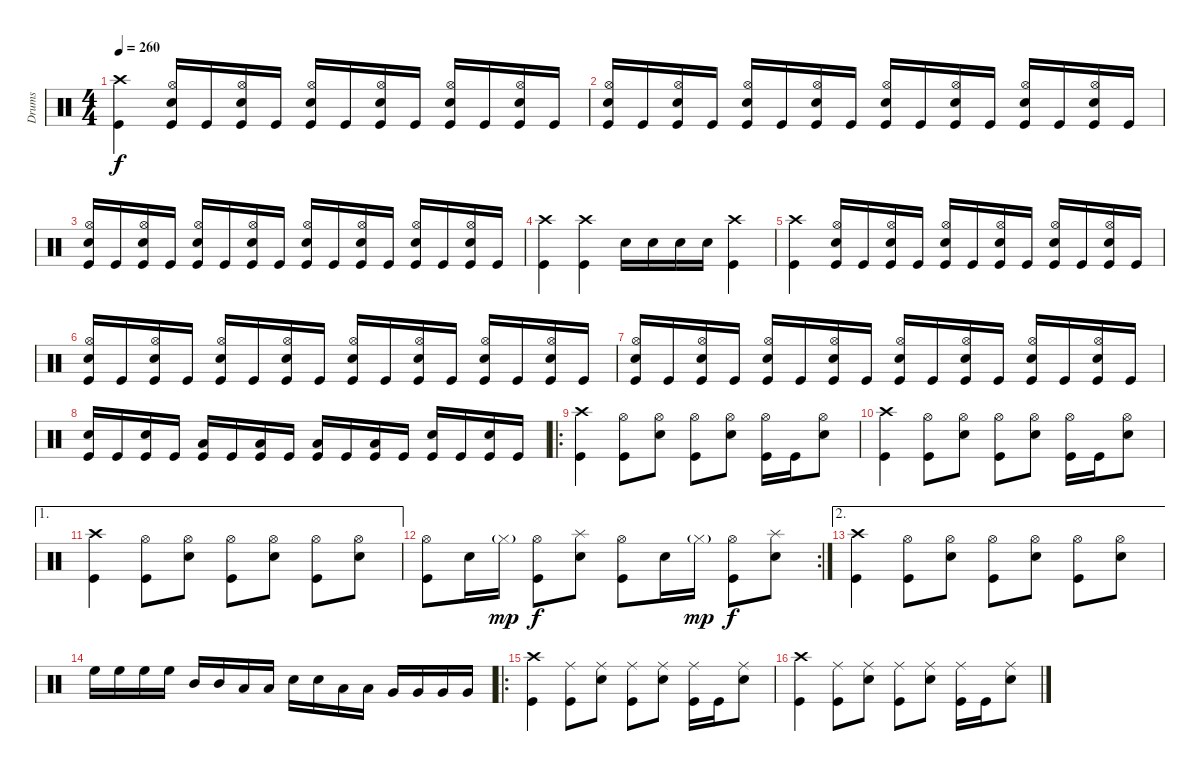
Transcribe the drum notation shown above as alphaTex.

\track ("Drums" "Drums") {instrument percussion}
\staff {score}
\articulation defaults
\ts (4 4)
\tempo 260
\clef neutral
\ks c
("Crash high (hit)" "Kick (hit)").4{dy f} ("Hi-Hat (open)" "Electric Snare (hit)" "Kick (hit)").16 "Kick (hit)".16 ("Hi-Hat (open)" "Electric Snare (hit)" "Kick (hit)").16 "Kick (hit)".16 ("Hi-Hat (open)" "Electric Snare (hit)" "Kick (hit)").16 "Kick (hit)".16 ("Hi-Hat (open)" "Electric Snare (hit)" "Kick (hit)").16 "Kick (hit)".16 ("Hi-Hat (open)" "Electric Snare (hit)" "Kick (hit)").16 "Kick (hit)".16 ("Hi-Hat (open)" "Electric Snare (hit)" "Kick (hit)").16 "Kick (hit)".16 |
("Hi-Hat (open)" "Electric Snare (hit)" "Kick (hit)").16 "Kick (hit)".16 ("Hi-Hat (open)" "Electric Snare (hit)" "Kick (hit)").16 "Kick (hit)".16 ("Hi-Hat (open)" "Electric Snare (hit)" "Kick (hit)").16 "Kick (hit)".16 ("Hi-Hat (open)" "Electric Snare (hit)" "Kick (hit)").16 "Kick (hit)".16 ("Hi-Hat (open)" "Electric Snare (hit)" "Kick (hit)").16 "Kick (hit)".16 ("Hi-Hat (open)" "Electric Snare (hit)" "Kick (hit)").16 "Kick (hit)".16 ("Hi-Hat (open)" "Electric Snare (hit)" "Kick (hit)").16 "Kick (hit)".16 ("Hi-Hat (open)" "Electric Snare (hit)" "Kick (hit)").16 "Kick (hit)".16 |
("Hi-Hat (open)" "Electric Snare (hit)" "Kick (hit)").16 "Kick (hit)".16 ("Hi-Hat (open)" "Electric Snare (hit)" "Kick (hit)").16 "Kick (hit)".16 ("Hi-Hat (open)" "Electric Snare (hit)" "Kick (hit)").16 "Kick (hit)".16 ("Hi-Hat (open)" "Electric Snare (hit)" "Kick (hit)").16 "Kick (hit)".16 ("Hi-Hat (open)" "Electric Snare (hit)" "Kick (hit)").16 "Kick (hit)".16 ("Hi-Hat (open)" "Electric Snare (hit)" "Kick (hit)").16 "Kick (hit)".16 ("Hi-Hat (open)" "Electric Snare (hit)" "Kick (hit)").16 "Kick (hit)".16 ("Hi-Hat (open)" "Electric Snare (hit)" "Kick (hit)").16 "Kick (hit)".16 |
("Crash high (hit)" "Kick (hit)").4 ("Crash high (hit)" "Kick (hit)").4 "Electric Snare (hit)".16 "Electric Snare (hit)".16 "Electric Snare (hit)".16 "Electric Snare (hit)".16 ("Crash high (hit)" "Kick (hit)").4 |
("Crash high (hit)" "Kick (hit)").4 ("Hi-Hat (open)" "Electric Snare (hit)" "Kick (hit)").16 "Kick (hit)".16 ("Hi-Hat (open)" "Electric Snare (hit)" "Kick (hit)").16 "Kick (hit)".16 ("Hi-Hat (open)" "Electric Snare (hit)" "Kick (hit)").16 "Kick (hit)".16 ("Hi-Hat (open)" "Electric Snare (hit)" "Kick (hit)").16 "Kick (hit)".16 ("Hi-Hat (open)" "Electric Snare (hit)" "Kick (hit)").16 "Kick (hit)".16 ("Hi-Hat (open)" "Electric Snare (hit)" "Kick (hit)").16 "Kick (hit)".16 |
("Hi-Hat (open)" "Electric Snare (hit)" "Kick (hit)").16 "Kick (hit)".16 ("Hi-Hat (open)" "Electric Snare (hit)" "Kick (hit)").16 "Kick (hit)".16 ("Hi-Hat (open)" "Electric Snare (hit)" "Kick (hit)").16 "Kick (hit)".16 ("Hi-Hat (open)" "Electric Snare (hit)" "Kick (hit)").16 "Kick (hit)".16 ("Hi-Hat (open)" "Electric Snare (hit)" "Kick (hit)").16 "Kick (hit)".16 ("Hi-Hat (open)" "Electric Snare (hit)" "Kick (hit)").16 "Kick (hit)".16 ("Hi-Hat (open)" "Electric Snare (hit)" "Kick (hit)").16 "Kick (hit)".16 ("Hi-Hat (open)" "Electric Snare (hit)" "Kick (hit)").16 "Kick (hit)".16 |
("Hi-Hat (open)" "Electric Snare (hit)" "Kick (hit)").16 "Kick (hit)".16 ("Hi-Hat (open)" "Electric Snare (hit)" "Kick (hit)").16 "Kick (hit)".16 ("Hi-Hat (open)" "Electric Snare (hit)" "Kick (hit)").16 "Kick (hit)".16 ("Hi-Hat (open)" "Electric Snare (hit)" "Kick (hit)").16 "Kick (hit)".16 ("Hi-Hat (open)" "Electric Snare (hit)" "Kick (hit)").16 "Kick (hit)".16 ("Hi-Hat (open)" "Electric Snare (hit)" "Kick (hit)").16 "Kick (hit)".16 ("Hi-Hat (open)" "Electric Snare (hit)" "Kick (hit)").16 "Kick (hit)".16 ("Hi-Hat (open)" "Electric Snare (hit)" "Kick (hit)").16 "Kick (hit)".16 |
("Electric Snare (hit)" "Kick (hit)").16 "Kick (hit)".16 ("Electric Snare (hit)" "Kick (hit)").16 "Kick (hit)".16 ("Low Tom (hit)" "Kick (hit)").16 "Kick (hit)".16 ("Low Tom (hit)" "Kick (hit)").16 "Kick (hit)".16 ("Low Tom (hit)" "Kick (hit)").16 "Kick (hit)".16 ("Low Tom (hit)" "Kick (hit)").16 "Kick (hit)".16 ("Electric Snare (hit)" "Kick (hit)").16 "Kick (hit)".16 ("Electric Snare (hit)" "Kick (hit)").16 "Kick (hit)".16 |
\ro
("Crash high (hit)" "Kick (hit)").4 ("Hi-Hat (open)" "Kick (hit)").8 ("Hi-Hat (open)" "Electric Snare (hit)").8 ("Hi-Hat (open)" "Kick (hit)").8 ("Hi-Hat (open)" "Electric Snare (hit)").8 ("Hi-Hat (open)" "Kick (hit)").16 "Kick (hit)".16 ("Hi-Hat (open)" "Electric Snare (hit)").8 |
("Crash high (hit)" "Kick (hit)").4 ("Hi-Hat (open)" "Kick (hit)").8 ("Hi-Hat (open)" "Electric Snare (hit)").8 ("Hi-Hat (open)" "Kick (hit)").8 ("Hi-Hat (open)" "Electric Snare (hit)").8 ("Hi-Hat (open)" "Kick (hit)").16 "Kick (hit)".16 ("Hi-Hat (open)" "Electric Snare (hit)").8 |
\ae 1
("Crash high (hit)" "Kick (hit)").4 ("Hi-Hat (open)" "Kick (hit)").8 ("Hi-Hat (open)" "Electric Snare (hit)").8 ("Hi-Hat (open)" "Kick (hit)").8 ("Hi-Hat (open)" "Electric Snare (hit)").8 ("Hi-Hat (open)" "Kick (hit)").8 ("Hi-Hat (open)" "Electric Snare (hit)").8 |
\rc 2
("Hi-Hat (open)" "Kick (hit)").8 "Electric Snare (hit)".16 "Hi-Hat (closed)"{g}.16{dy mp} ("Hi-Hat (open)" "Kick (hit)").8{dy f} ("Splash (hit)" "Electric Snare (hit)").8 ("Hi-Hat (open)" "Kick (hit)").8 "Electric Snare (hit)".16 "Hi-Hat (closed)"{g}.16{dy mp} ("Hi-Hat (open)" "Kick (hit)").8{dy f} ("Splash (hit)" "Electric Snare (hit)").8 |
\ae 2
("Crash high (hit)" "Kick (hit)").4 ("Hi-Hat (open)" "Kick (hit)").8 ("Hi-Hat (open)" "Electric Snare (hit)").8 ("Hi-Hat (open)" "Kick (hit)").8 ("Hi-Hat (open)" "Electric Snare (hit)").8 ("Hi-Hat (open)" "Kick (hit)").8 ("Hi-Hat (open)" "Electric Snare (hit)").8 |
"High Floor Tom (hit)".16 "High Floor Tom (hit)".16 "High Floor Tom (hit)".16 "High Floor Tom (hit)".16 "Mid Tom (hit)".16 "Mid Tom (hit)".16 "Low Tom (hit)".16 "Low Tom (hit)".16 "Electric Snare (hit)".16 "Electric Snare (hit)".16 "Low Tom (hit)".16 "Low Tom (hit)".16 "Very Low Tom (hit)".16 "Very Low Tom (hit)".16 "Very Low Tom (hit)".16 "Very Low Tom (hit)".16 |
\ro
("Crash high (hit)" "Kick (hit)").4 ("Ride (middle)" "Kick (hit)").8 ("Ride (middle)" "Electric Snare (hit)").8 ("Ride (middle)" "Kick (hit)").8 ("Ride (middle)" "Electric Snare (hit)").8 ("Ride (middle)" "Kick (hit)").16 "Kick (hit)".16 ("Ride (middle)" "Electric Snare (hit)").8 |
("Crash high (hit)" "Kick (hit)").4 ("Ride (middle)" "Kick (hit)").8 ("Ride (middle)" "Electric Snare (hit)").8 ("Ride (middle)" "Kick (hit)").8 ("Ride (middle)" "Electric Snare (hit)").8 ("Ride (middle)" "Kick (hit)").16 "Kick (hit)".16 ("Ride (middle)" "Electric Snare (hit)").8
